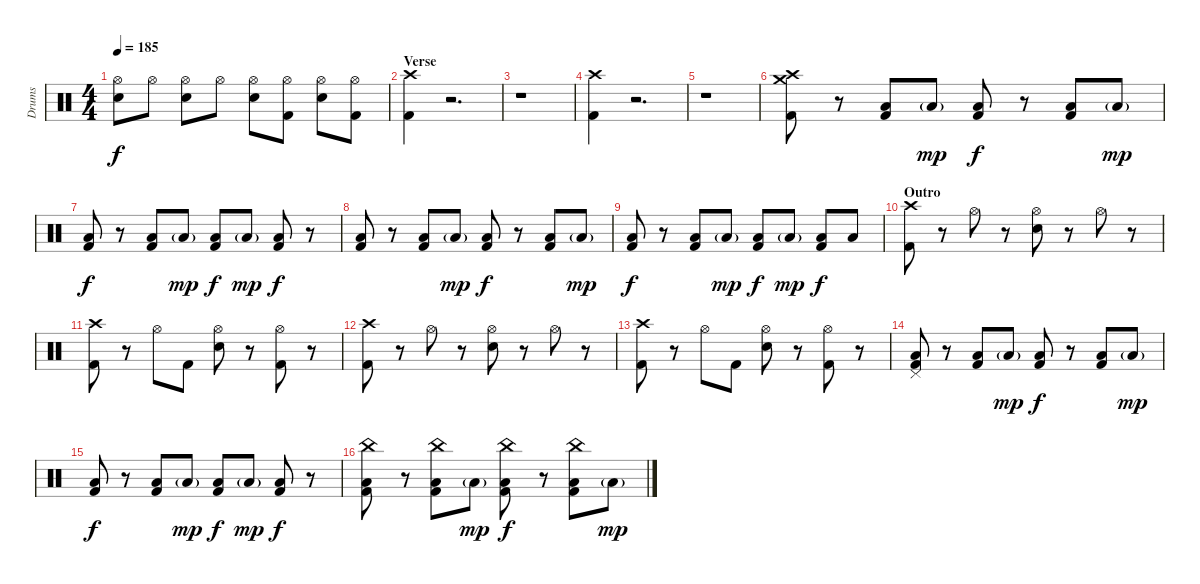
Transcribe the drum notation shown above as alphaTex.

\track ("Drums" "Drums") {instrument percussion}
\staff {score}
\articulation defaults
\ts (4 4)
\tempo 185
\clef neutral
\ks c
("Hi-Hat (open)" "Electric Snare (hit)").8{dy f} "Hi-Hat (open)".8 ("Hi-Hat (open)" "Electric Snare (hit)").8 "Hi-Hat (open)".8 ("Hi-Hat (open)" "Electric Snare (hit)").8 ("Hi-Hat (open)" "Kick (hit) 2").8 ("Hi-Hat (open)" "Electric Snare (hit)").8 ("Hi-Hat (open)" "Kick (hit) 2").8 |
\section ("" "Verse")
("Crash high (hit)" "Kick (hit) 2").4 r.2{d volume 0} |
r.1 |
("Crash high (hit)" "Kick (hit) 2").4{volume 13} r.2{d volume 0} |
r.1 |
("Crash medium (hit)" "Crash high (hit)" "Kick (hit) 2").8{volume 13} r.8 ("Low Tom (hit)" "Kick (hit) 2").8 "Low Tom (hit)"{g}.8{dy mp} ("Low Tom (hit)" "Kick (hit) 2").8{dy f} r.8 ("Low Tom (hit)" "Kick (hit) 2").8 "Low Tom (hit)"{g}.8{dy mp} |
("Low Tom (hit)" "Kick (hit) 2").8{dy f} r.8 ("Low Tom (hit)" "Kick (hit) 2").8 "Low Tom (hit)"{g}.8{dy mp} ("Low Tom (hit)" "Kick (hit) 2").8{dy f} "Low Tom (hit)"{g}.8{dy mp} ("Low Tom (hit)" "Kick (hit) 2").8{dy f} r.8 |
("Low Tom (hit)" "Kick (hit) 2").8 r.8 ("Low Tom (hit)" "Kick (hit) 2").8 "Low Tom (hit)"{g}.8{dy mp} ("Low Tom (hit)" "Kick (hit) 2").8{dy f} r.8 ("Low Tom (hit)" "Kick (hit) 2").8 "Low Tom (hit)"{g}.8{dy mp} |
("Low Tom (hit)" "Kick (hit) 2").8{dy f} r.8 ("Low Tom (hit)" "Kick (hit) 2").8 "Low Tom (hit)"{g}.8{dy mp} ("Low Tom (hit)" "Kick (hit) 2").8{dy f} "Low Tom (hit)"{g}.8{dy mp} ("Low Tom (hit)" "Kick (hit) 2").8{dy f} "Low Tom (hit)".8 |
\section ("" "Outro")
("Crash high (hit)" "Kick (hit) 2").8 r.8 "Hi-Hat (open)".8 r.8 ("Hi-Hat (open)" "Electric Snare (hit)").8 r.8 "Hi-Hat (open)".8 r.8 |
("Crash high (hit)" "Kick (hit) 2").8 r.8 "Hi-Hat (open)".8 "Kick (hit) 2".8 ("Hi-Hat (open)" "Electric Snare (hit)").8 r.8 ("Hi-Hat (open)" "Kick (hit) 2").8 r.8 |
("Crash high (hit)" "Kick (hit) 2").8 r.8 "Hi-Hat (open)".8 r.8 ("Hi-Hat (open)" "Electric Snare (hit)").8 r.8 "Hi-Hat (open)".8 r.8 |
("Crash high (hit)" "Kick (hit) 2").8 r.8 "Hi-Hat (open)".8 "Kick (hit) 2".8 ("Hi-Hat (open)" "Electric Snare (hit)").8 r.8 ("Hi-Hat (open)" "Kick (hit) 2").8 r.8 |
("Pedal Hi-Hat (hit)" "Low Tom (hit)" "Kick (hit) 2").8 r.8 ("Low Tom (hit)" "Kick (hit) 2").8 "Low Tom (hit)"{g}.8{dy mp} ("Low Tom (hit)" "Kick (hit) 2").8{dy f} r.8 ("Low Tom (hit)" "Kick (hit) 2").8 "Low Tom (hit)"{g}.8{dy mp} |
("Low Tom (hit)" "Kick (hit) 2").8{dy f} r.8 ("Low Tom (hit)" "Kick (hit) 2").8 "Low Tom (hit)"{g}.8{dy mp} ("Low Tom (hit)" "Kick (hit) 2").8{dy f} "Low Tom (hit)"{g}.8{dy mp} ("Low Tom (hit)" "Kick (hit) 2").8{dy f} r.8 |
("China (hit)" "Low Tom (hit)" "Kick (hit) 2").8 r.8 ("China (hit)" "Low Tom (hit)" "Kick (hit) 2").8 "Low Tom (hit)"{g}.8{dy mp} ("China (hit)" "Low Tom (hit)" "Kick (hit) 2").8{dy f} r.8 ("China (hit)" "Low Tom (hit)" "Kick (hit) 2").8 "Low Tom (hit)"{g}.8{dy mp}
